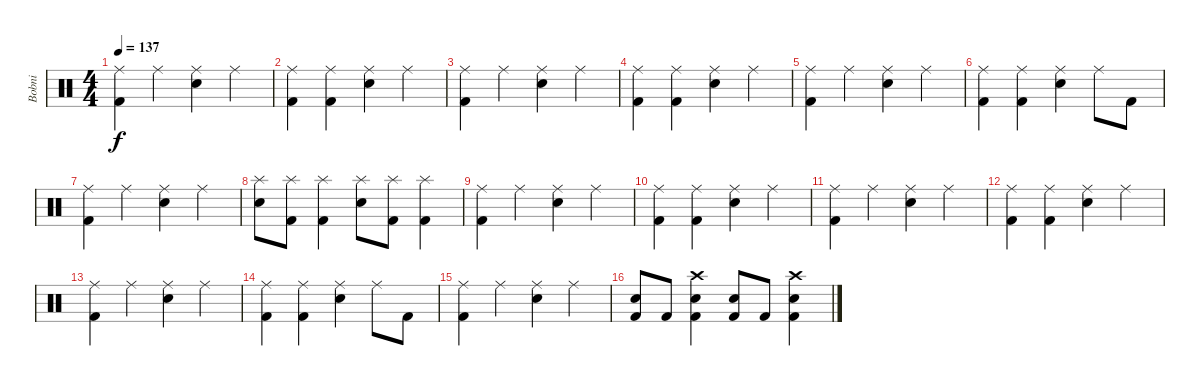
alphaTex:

\track ("Bobni" "Bobni") {instrument percussion}
\staff {score}
\articulation defaults
\ts (4 4)
\tempo 137
\clef neutral
\ks c
("Ride (middle)" "Kick (hit) 2").4{dy f} "Ride (middle)".4 ("Ride (middle)" "Snare (hit) 2").4 "Ride (middle)".4 |
("Ride (middle)" "Kick (hit) 2").4 ("Ride (middle)" "Kick (hit) 2").4 ("Ride (middle)" "Snare (hit) 2").4 "Ride (middle)".4 |
("Ride (middle)" "Kick (hit) 2").4 "Ride (middle)".4 ("Ride (middle)" "Snare (hit) 2").4 "Ride (middle)".4 |
("Ride (middle)" "Kick (hit) 2").4 ("Ride (middle)" "Kick (hit) 2").4 ("Ride (middle)" "Snare (hit) 2").4 "Ride (middle)".4 |
("Ride (middle)" "Kick (hit) 2").4 "Ride (middle)".4 ("Ride (middle)" "Snare (hit) 2").4 "Ride (middle)".4 |
("Ride (middle)" "Kick (hit) 2").4 ("Ride (middle)" "Kick (hit) 2").4 ("Ride (middle)" "Snare (hit) 2").4 "Ride (middle)".8 "Kick (hit) 2".8 |
("Ride (middle)" "Kick (hit) 2").4 "Ride (middle)".4 ("Ride (middle)" "Snare (hit) 2").4 "Ride (middle)".4 |
("Splash (hit)" "Snare (hit) 2").8 ("Splash (hit)" "Kick (hit) 2").8 ("Splash (hit)" "Kick (hit) 2").4 ("Splash (hit)" "Snare (hit) 2").8 ("Splash (hit)" "Kick (hit) 2").8 ("Splash (hit)" "Kick (hit) 2").4 |
("Ride (middle)" "Kick (hit) 2").4 "Ride (middle)".4 ("Ride (middle)" "Snare (hit) 2").4 "Ride (middle)".4 |
("Ride (middle)" "Kick (hit) 2").4 ("Ride (middle)" "Kick (hit) 2").4 ("Ride (middle)" "Snare (hit) 2").4 "Ride (middle)".4 |
("Ride (middle)" "Kick (hit) 2").4 "Ride (middle)".4 ("Ride (middle)" "Snare (hit) 2").4 "Ride (middle)".4 |
("Ride (middle)" "Kick (hit) 2").4 ("Ride (middle)" "Kick (hit) 2").4 ("Ride (middle)" "Snare (hit) 2").4 "Ride (middle)".4 |
("Ride (middle)" "Kick (hit) 2").4 "Ride (middle)".4 ("Ride (middle)" "Snare (hit) 2").4 "Ride (middle)".4 |
("Ride (middle)" "Kick (hit) 2").4 ("Ride (middle)" "Kick (hit) 2").4 ("Ride (middle)" "Snare (hit) 2").4 "Ride (middle)".8 "Kick (hit) 2".8 |
("Ride (middle)" "Kick (hit) 2").4 "Ride (middle)".4 ("Ride (middle)" "Snare (hit) 2").4 "Ride (middle)".4 |
("Snare (hit) 2" "Kick (hit) 2").8 "Kick (hit) 2".8 ("Crash high (hit)" "Snare (hit) 2" "Kick (hit) 2").4 ("Snare (hit) 2" "Kick (hit) 2").8 "Kick (hit) 2".8 ("Crash high (hit)" "Snare (hit) 2" "Kick (hit) 2").4
